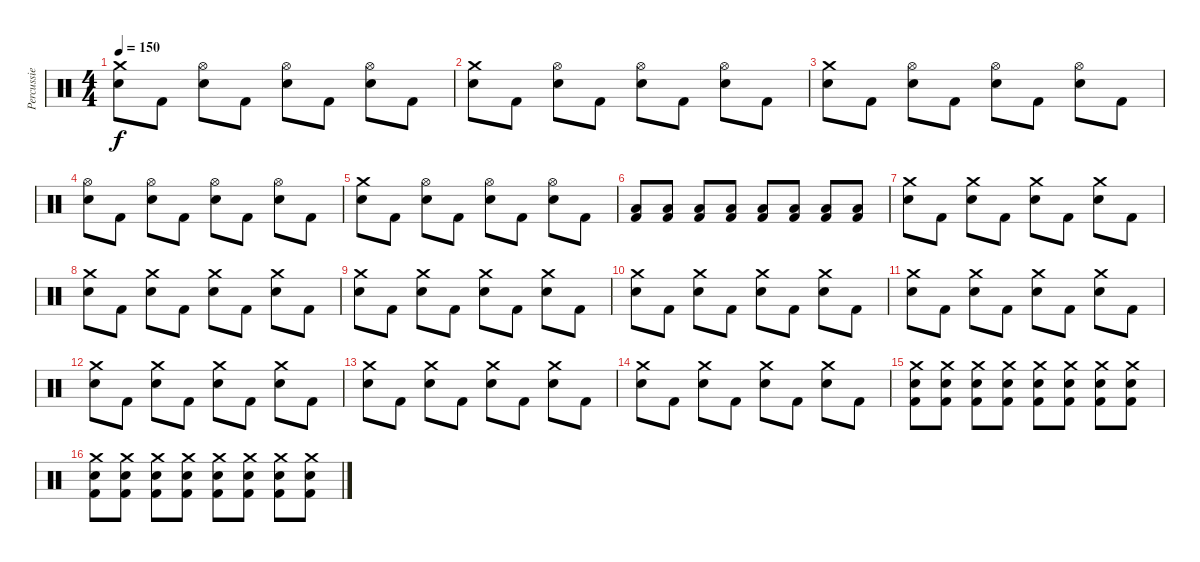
\track ("Percussie" "Percussie") {instrument percussion}
\staff {score}
\articulation defaults
\ts (4 4)
\tempo 150
\clef neutral
\ks c
("Crash medium (hit)" "Snare (hit) 2").8{dy f} "Kick (hit) 2".8 ("Hi-Hat (open)" "Snare (hit) 2").8 "Kick (hit) 2".8 ("Hi-Hat (open)" "Snare (hit) 2").8 "Kick (hit) 2".8 ("Hi-Hat (open)" "Snare (hit) 2").8 "Kick (hit) 2".8 |
("Crash medium (hit)" "Snare (hit) 2").8 "Kick (hit) 2".8 ("Hi-Hat (open)" "Snare (hit) 2").8 "Kick (hit) 2".8 ("Hi-Hat (open)" "Snare (hit) 2").8 "Kick (hit) 2".8 ("Hi-Hat (open)" "Snare (hit) 2").8 "Kick (hit) 2".8 |
("Crash medium (hit)" "Snare (hit) 2").8 "Kick (hit) 2".8 ("Hi-Hat (open)" "Snare (hit) 2").8 "Kick (hit) 2".8 ("Hi-Hat (open)" "Snare (hit) 2").8 "Kick (hit) 2".8 ("Hi-Hat (open)" "Snare (hit) 2").8 "Kick (hit) 2".8 |
("Hi-Hat (open)" "Snare (hit) 2").8 "Kick (hit) 2".8 ("Hi-Hat (open)" "Snare (hit) 2").8 "Kick (hit) 2".8 ("Hi-Hat (open)" "Snare (hit) 2").8 "Kick (hit) 2".8 ("Hi-Hat (open)" "Snare (hit) 2").8 "Kick (hit) 2".8 |
("Crash medium (hit)" "Snare (hit) 2").8 "Kick (hit) 2".8 ("Hi-Hat (open)" "Snare (hit) 2").8 "Kick (hit) 2".8 ("Hi-Hat (open)" "Snare (hit) 2").8 "Kick (hit) 2".8 ("Hi-Hat (open)" "Snare (hit) 2").8 "Kick (hit) 2".8 |
("Low Tom (hit)" "Kick (hit) 2").8 ("Low Tom (hit)" "Kick (hit) 2").8 ("Low Tom (hit)" "Kick (hit) 2").8 ("Low Tom (hit)" "Kick (hit) 2").8 ("Low Tom (hit)" "Kick (hit) 2").8 ("Low Tom (hit)" "Kick (hit) 2").8 ("Low Tom (hit)" "Kick (hit) 2").8 ("Low Tom (hit)" "Kick (hit) 2").8 |
("Crash medium (hit)" "Snare (hit) 2").8 "Kick (hit) 2".8 ("Crash medium (hit)" "Snare (hit) 2").8 "Kick (hit) 2".8 ("Crash medium (hit)" "Snare (hit) 2").8 "Kick (hit) 2".8 ("Crash medium (hit)" "Snare (hit) 2").8 "Kick (hit) 2".8 |
("Crash medium (hit)" "Snare (hit) 2").8 "Kick (hit) 2".8 ("Crash medium (hit)" "Snare (hit) 2").8 "Kick (hit) 2".8 ("Crash medium (hit)" "Snare (hit) 2").8 "Kick (hit) 2".8 ("Crash medium (hit)" "Snare (hit) 2").8 "Kick (hit) 2".8 |
("Crash medium (hit)" "Snare (hit) 2").8 "Kick (hit) 2".8 ("Crash medium (hit)" "Snare (hit) 2").8 "Kick (hit) 2".8 ("Crash medium (hit)" "Snare (hit) 2").8 "Kick (hit) 2".8 ("Crash medium (hit)" "Snare (hit) 2").8 "Kick (hit) 2".8 |
("Crash medium (hit)" "Snare (hit) 2").8 "Kick (hit) 2".8 ("Crash medium (hit)" "Snare (hit) 2").8 "Kick (hit) 2".8 ("Crash medium (hit)" "Snare (hit) 2").8 "Kick (hit) 2".8 ("Crash medium (hit)" "Snare (hit) 2").8 "Kick (hit) 2".8 |
("Crash medium (hit)" "Snare (hit) 2").8 "Kick (hit) 2".8 ("Crash medium (hit)" "Snare (hit) 2").8 "Kick (hit) 2".8 ("Crash medium (hit)" "Snare (hit) 2").8 "Kick (hit) 2".8 ("Crash medium (hit)" "Snare (hit) 2").8 "Kick (hit) 2".8 |
("Crash medium (hit)" "Snare (hit) 2").8 "Kick (hit) 2".8 ("Crash medium (hit)" "Snare (hit) 2").8 "Kick (hit) 2".8 ("Crash medium (hit)" "Snare (hit) 2").8 "Kick (hit) 2".8 ("Crash medium (hit)" "Snare (hit) 2").8 "Kick (hit) 2".8 |
("Crash medium (hit)" "Snare (hit) 2").8 "Kick (hit) 2".8 ("Crash medium (hit)" "Snare (hit) 2").8 "Kick (hit) 2".8 ("Crash medium (hit)" "Snare (hit) 2").8 "Kick (hit) 2".8 ("Crash medium (hit)" "Snare (hit) 2").8 "Kick (hit) 2".8 |
("Crash medium (hit)" "Snare (hit) 2").8 "Kick (hit) 2".8 ("Crash medium (hit)" "Snare (hit) 2").8 "Kick (hit) 2".8 ("Crash medium (hit)" "Snare (hit) 2").8 "Kick (hit) 2".8 ("Crash medium (hit)" "Snare (hit) 2").8 "Kick (hit) 2".8 |
("Crash medium (hit)" "Snare (hit) 2" "Kick (hit) 2").8 ("Crash medium (hit)" "Snare (hit) 2" "Kick (hit) 2").8 ("Crash medium (hit)" "Snare (hit) 2" "Kick (hit) 2").8 ("Crash medium (hit)" "Snare (hit) 2" "Kick (hit) 2").8 ("Crash medium (hit)" "Snare (hit) 2" "Kick (hit) 2").8 ("Crash medium (hit)" "Snare (hit) 2" "Kick (hit) 2").8 ("Crash medium (hit)" "Snare (hit) 2" "Kick (hit) 2").8 ("Crash medium (hit)" "Snare (hit) 2" "Kick (hit) 2").8 |
("Crash medium (hit)" "Snare (hit) 2" "Kick (hit) 2").8 ("Crash medium (hit)" "Snare (hit) 2" "Kick (hit) 2").8 ("Crash medium (hit)" "Snare (hit) 2" "Kick (hit) 2").8 ("Crash medium (hit)" "Snare (hit) 2" "Kick (hit) 2").8 ("Crash medium (hit)" "Snare (hit) 2" "Kick (hit) 2").8 ("Crash medium (hit)" "Snare (hit) 2" "Kick (hit) 2").8 ("Crash medium (hit)" "Snare (hit) 2" "Kick (hit) 2").8 ("Crash medium (hit)" "Snare (hit) 2" "Kick (hit) 2").8
